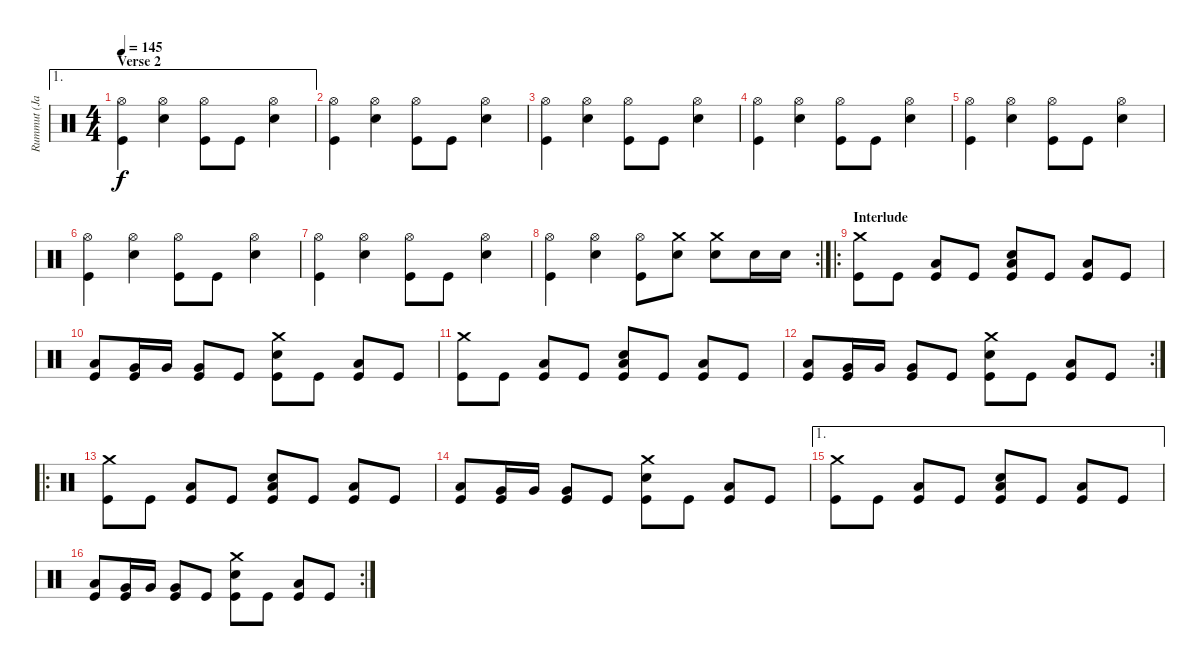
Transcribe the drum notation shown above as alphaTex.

\track ("Rummut (Janne)" "Rummut (Ja") {instrument percussion}
\staff {score}
\articulation defaults
\ae 1
\ts (4 4)
\section ("" "Verse 2")
\tempo 145
\clef neutral
\ks c
("Hi-Hat (open)" "Kick (hit)").4{dy f} ("Hi-Hat (open)" "Snare (hit) 2").4 ("Hi-Hat (open)" "Kick (hit)").8 "Kick (hit)".8 ("Hi-Hat (open)" "Snare (hit) 2").4 |
("Hi-Hat (open)" "Kick (hit)").4 ("Hi-Hat (open)" "Snare (hit) 2").4 ("Hi-Hat (open)" "Kick (hit)").8 "Kick (hit)".8 ("Hi-Hat (open)" "Snare (hit) 2").4 |
("Hi-Hat (open)" "Kick (hit)").4 ("Hi-Hat (open)" "Snare (hit) 2").4 ("Hi-Hat (open)" "Kick (hit)").8 "Kick (hit)".8 ("Hi-Hat (open)" "Snare (hit) 2").4 |
("Hi-Hat (open)" "Kick (hit)").4 ("Hi-Hat (open)" "Snare (hit) 2").4 ("Hi-Hat (open)" "Kick (hit)").8 "Kick (hit)".8 ("Hi-Hat (open)" "Snare (hit) 2").4 |
("Hi-Hat (open)" "Kick (hit)").4 ("Hi-Hat (open)" "Snare (hit) 2").4 ("Hi-Hat (open)" "Kick (hit)").8 "Kick (hit)".8 ("Hi-Hat (open)" "Snare (hit) 2").4 |
("Hi-Hat (open)" "Kick (hit)").4 ("Hi-Hat (open)" "Snare (hit) 2").4 ("Hi-Hat (open)" "Kick (hit)").8 "Kick (hit)".8 ("Hi-Hat (open)" "Snare (hit) 2").4 |
("Hi-Hat (open)" "Kick (hit)").4 ("Hi-Hat (open)" "Snare (hit) 2").4 ("Hi-Hat (open)" "Kick (hit)").8 "Kick (hit)".8 ("Hi-Hat (open)" "Snare (hit) 2").4 |
\rc 2
("Hi-Hat (open)" "Kick (hit)").4 ("Hi-Hat (open)" "Snare (hit) 2").4 ("Hi-Hat (open)" "Kick (hit)").8 ("Crash medium (hit)" "Snare (hit) 2").8 ("Crash medium (hit)" "Snare (hit) 2").8 "Snare (hit) 2".16 "Snare (hit) 2".16 |
\ro
\section ("" "Interlude")
("Crash medium (hit)" "Kick (hit)").8 "Kick (hit)".8 ("Low Tom (hit)" "Kick (hit)").8 "Kick (hit)".8 ("Low Tom (hit)" "Snare (hit) 2" "Kick (hit)").8 "Kick (hit)".8 ("Low Tom (hit)" "Kick (hit)").8 "Kick (hit)".8 |
("Low Tom (hit)" "Kick (hit)").8 ("Very Low Tom (hit)" "Kick (hit)").16 "Very Low Tom (hit)".16 ("Very Low Tom (hit)" "Kick (hit)").8 "Kick (hit)".8 ("Crash medium (hit)" "Snare (hit) 2" "Kick (hit)").8 "Kick (hit)".8 ("Low Tom (hit)" "Kick (hit)").8 "Kick (hit)".8 |
("Crash medium (hit)" "Kick (hit)").8 "Kick (hit)".8 ("Low Tom (hit)" "Kick (hit)").8 "Kick (hit)".8 ("Low Tom (hit)" "Snare (hit) 2" "Kick (hit)").8 "Kick (hit)".8 ("Low Tom (hit)" "Kick (hit)").8 "Kick (hit)".8 |
\rc 2
("Low Tom (hit)" "Kick (hit)").8 ("Very Low Tom (hit)" "Kick (hit)").16 "Very Low Tom (hit)".16 ("Very Low Tom (hit)" "Kick (hit)").8 "Kick (hit)".8 ("Crash medium (hit)" "Snare (hit) 2" "Kick (hit)").8 "Kick (hit)".8 ("Low Tom (hit)" "Kick (hit)").8 "Kick (hit)".8 |
\ro
("Crash medium (hit)" "Kick (hit)").8 "Kick (hit)".8 ("Low Tom (hit)" "Kick (hit)").8 "Kick (hit)".8 ("Low Tom (hit)" "Snare (hit) 2" "Kick (hit)").8 "Kick (hit)".8 ("Low Tom (hit)" "Kick (hit)").8 "Kick (hit)".8 |
("Low Tom (hit)" "Kick (hit)").8 ("Very Low Tom (hit)" "Kick (hit)").16 "Very Low Tom (hit)".16 ("Very Low Tom (hit)" "Kick (hit)").8 "Kick (hit)".8 ("Crash medium (hit)" "Snare (hit) 2" "Kick (hit)").8 "Kick (hit)".8 ("Low Tom (hit)" "Kick (hit)").8 "Kick (hit)".8 |
\ae 1
("Crash medium (hit)" "Kick (hit)").8 "Kick (hit)".8 ("Low Tom (hit)" "Kick (hit)").8 "Kick (hit)".8 ("Low Tom (hit)" "Snare (hit) 2" "Kick (hit)").8 "Kick (hit)".8 ("Low Tom (hit)" "Kick (hit)").8 "Kick (hit)".8 |
\rc 2
("Low Tom (hit)" "Kick (hit)").8 ("Very Low Tom (hit)" "Kick (hit)").16 "Very Low Tom (hit)".16 ("Very Low Tom (hit)" "Kick (hit)").8 "Kick (hit)".8 ("Crash medium (hit)" "Snare (hit) 2" "Kick (hit)").8 "Kick (hit)".8 ("Low Tom (hit)" "Kick (hit)").8 "Kick (hit)".8
